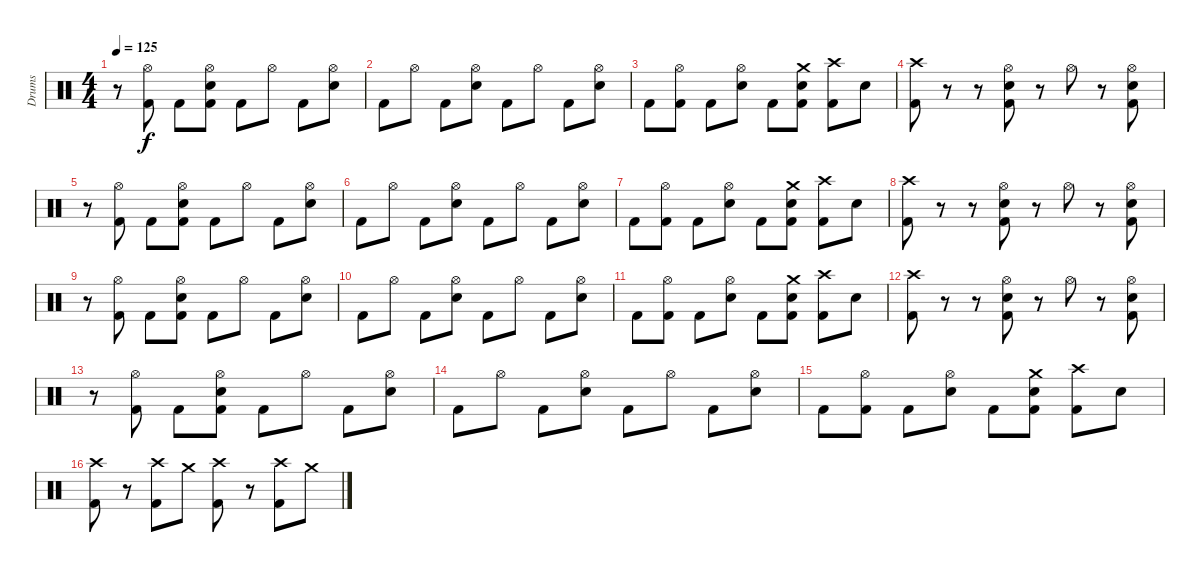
\track ("Drums" "Drums") {instrument percussion}
\staff {score}
\articulation defaults
\ts (4 4)
\tempo 125
\clef neutral
\ks c
r.8{dy f} ("Hi-Hat (open)" "Kick (hit) 2").8 "Kick (hit) 2".8 ("Hi-Hat (open)" "Snare (hit) 2" "Kick (hit) 2").8 "Kick (hit) 2".8 "Hi-Hat (open)".8 "Kick (hit) 2".8 ("Hi-Hat (open)" "Snare (hit) 2").8 |
"Kick (hit) 2".8 "Hi-Hat (open)".8 "Kick (hit) 2".8 ("Hi-Hat (open)" "Snare (hit) 2").8 "Kick (hit) 2".8 "Hi-Hat (open)".8 "Kick (hit) 2".8 ("Hi-Hat (open)" "Snare (hit) 2").8 |
"Kick (hit) 2".8 ("Hi-Hat (open)" "Kick (hit) 2").8 "Kick (hit) 2".8 ("Hi-Hat (open)" "Snare (hit) 2").8 "Kick (hit) 2".8 ("Crash medium (hit)" "Snare (hit) 2" "Kick (hit) 2").8 ("Crash high (hit)" "Kick (hit) 2").8 "Snare (hit) 2".8 |
("Crash high (hit)" "Kick (hit) 2").8 r.8 r.8 ("Hi-Hat (open)" "Snare (hit) 2" "Kick (hit) 2").8 r.8 "Hi-Hat (open)".8 r.8 ("Hi-Hat (open)" "Snare (hit) 2" "Kick (hit) 2").8 |
r.8 ("Hi-Hat (open)" "Kick (hit) 2").8 "Kick (hit) 2".8 ("Hi-Hat (open)" "Snare (hit) 2" "Kick (hit) 2").8 "Kick (hit) 2".8 "Hi-Hat (open)".8 "Kick (hit) 2".8 ("Hi-Hat (open)" "Snare (hit) 2").8 |
"Kick (hit) 2".8 "Hi-Hat (open)".8 "Kick (hit) 2".8 ("Hi-Hat (open)" "Snare (hit) 2").8 "Kick (hit) 2".8 "Hi-Hat (open)".8 "Kick (hit) 2".8 ("Hi-Hat (open)" "Snare (hit) 2").8 |
"Kick (hit) 2".8 ("Hi-Hat (open)" "Kick (hit) 2").8 "Kick (hit) 2".8 ("Hi-Hat (open)" "Snare (hit) 2").8 "Kick (hit) 2".8 ("Crash medium (hit)" "Snare (hit) 2" "Kick (hit) 2").8 ("Crash high (hit)" "Kick (hit) 2").8 "Snare (hit) 2".8 |
("Crash high (hit)" "Kick (hit) 2").8 r.8 r.8 ("Hi-Hat (open)" "Snare (hit) 2" "Kick (hit) 2").8 r.8 "Hi-Hat (open)".8 r.8 ("Hi-Hat (open)" "Snare (hit) 2" "Kick (hit) 2").8 |
r.8 ("Hi-Hat (open)" "Kick (hit) 2").8 "Kick (hit) 2".8 ("Hi-Hat (open)" "Snare (hit) 2" "Kick (hit) 2").8 "Kick (hit) 2".8 "Hi-Hat (open)".8 "Kick (hit) 2".8 ("Hi-Hat (open)" "Snare (hit) 2").8 |
"Kick (hit) 2".8 "Hi-Hat (open)".8 "Kick (hit) 2".8 ("Hi-Hat (open)" "Snare (hit) 2").8 "Kick (hit) 2".8 "Hi-Hat (open)".8 "Kick (hit) 2".8 ("Hi-Hat (open)" "Snare (hit) 2").8 |
"Kick (hit) 2".8 ("Hi-Hat (open)" "Kick (hit) 2").8 "Kick (hit) 2".8 ("Hi-Hat (open)" "Snare (hit) 2").8 "Kick (hit) 2".8 ("Crash medium (hit)" "Snare (hit) 2" "Kick (hit) 2").8 ("Crash high (hit)" "Kick (hit) 2").8 "Snare (hit) 2".8 |
("Crash high (hit)" "Kick (hit) 2").8 r.8 r.8 ("Hi-Hat (open)" "Snare (hit) 2" "Kick (hit) 2").8 r.8 "Hi-Hat (open)".8 r.8 ("Hi-Hat (open)" "Snare (hit) 2" "Kick (hit) 2").8 |
r.8 ("Hi-Hat (open)" "Kick (hit) 2").8 "Kick (hit) 2".8 ("Hi-Hat (open)" "Snare (hit) 2" "Kick (hit) 2").8 "Kick (hit) 2".8 "Hi-Hat (open)".8 "Kick (hit) 2".8 ("Hi-Hat (open)" "Snare (hit) 2").8 |
"Kick (hit) 2".8 "Hi-Hat (open)".8 "Kick (hit) 2".8 ("Hi-Hat (open)" "Snare (hit) 2").8 "Kick (hit) 2".8 "Hi-Hat (open)".8 "Kick (hit) 2".8 ("Hi-Hat (open)" "Snare (hit) 2").8 |
"Kick (hit) 2".8 ("Hi-Hat (open)" "Kick (hit) 2").8 "Kick (hit) 2".8 ("Hi-Hat (open)" "Snare (hit) 2").8 "Kick (hit) 2".8 ("Crash medium (hit)" "Snare (hit) 2" "Kick (hit) 2").8 ("Crash high (hit)" "Kick (hit) 2").8 "Snare (hit) 2".8 |
("Crash high (hit)" "Kick (hit) 2").8 r.8 ("Crash high (hit)" "Kick (hit) 2").8 "Crash medium (hit)".8 ("Crash high (hit)" "Kick (hit) 2").8 r.8 ("Crash high (hit)" "Kick (hit) 2").8 "Crash medium (hit)".8
